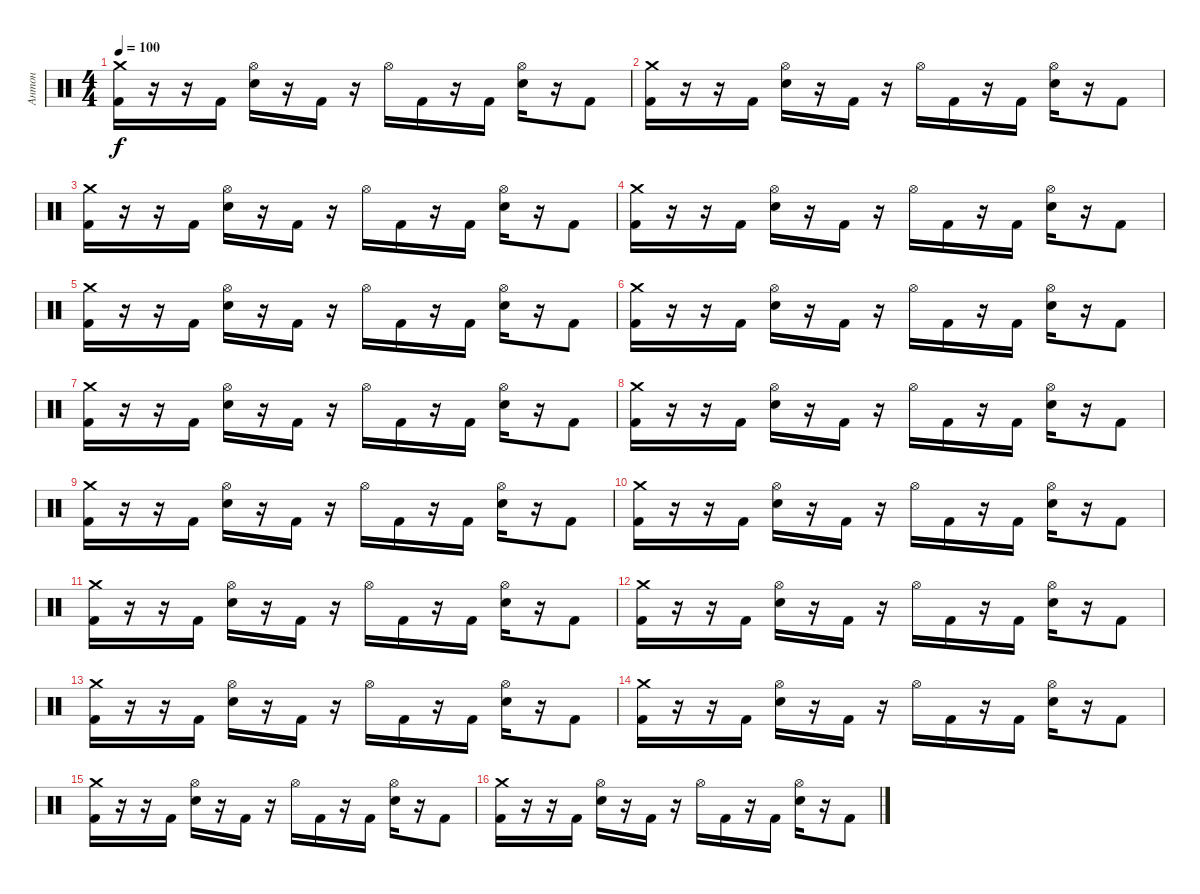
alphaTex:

\track ("Антон" "Антон") {instrument percussion}
\staff {score}
\articulation defaults
\ts (4 4)
\tempo 100
\clef neutral
\ks c
("Crash medium (hit)" "Kick (hit) 2").16{dy f} r.16 r.16 "Kick (hit) 2".16 ("Hi-Hat (open)" "Electric Snare (hit)").16 r.16 "Kick (hit) 2".16 r.16 "Hi-Hat (open)".16 "Kick (hit) 2".16 r.16 "Kick (hit) 2".16 ("Hi-Hat (open)" "Electric Snare (hit)").16 r.16 "Kick (hit) 2".8 |
("Crash medium (hit)" "Kick (hit) 2").16 r.16 r.16 "Kick (hit) 2".16 ("Hi-Hat (open)" "Electric Snare (hit)").16 r.16 "Kick (hit) 2".16 r.16 "Hi-Hat (open)".16 "Kick (hit) 2".16 r.16 "Kick (hit) 2".16 ("Hi-Hat (open)" "Electric Snare (hit)").16 r.16 "Kick (hit) 2".8 |
("Crash medium (hit)" "Kick (hit) 2").16 r.16 r.16 "Kick (hit) 2".16 ("Hi-Hat (open)" "Electric Snare (hit)").16 r.16 "Kick (hit) 2".16 r.16 "Hi-Hat (open)".16 "Kick (hit) 2".16 r.16 "Kick (hit) 2".16 ("Hi-Hat (open)" "Electric Snare (hit)").16 r.16 "Kick (hit) 2".8 |
("Crash medium (hit)" "Kick (hit) 2").16 r.16 r.16 "Kick (hit) 2".16 ("Hi-Hat (open)" "Electric Snare (hit)").16 r.16 "Kick (hit) 2".16 r.16 "Hi-Hat (open)".16 "Kick (hit) 2".16 r.16 "Kick (hit) 2".16 ("Hi-Hat (open)" "Electric Snare (hit)").16 r.16 "Kick (hit) 2".8 |
("Crash medium (hit)" "Kick (hit) 2").16 r.16 r.16 "Kick (hit) 2".16 ("Hi-Hat (open)" "Electric Snare (hit)").16 r.16 "Kick (hit) 2".16 r.16 "Hi-Hat (open)".16 "Kick (hit) 2".16 r.16 "Kick (hit) 2".16 ("Hi-Hat (open)" "Electric Snare (hit)").16 r.16 "Kick (hit) 2".8 |
("Crash medium (hit)" "Kick (hit) 2").16 r.16 r.16 "Kick (hit) 2".16 ("Hi-Hat (open)" "Electric Snare (hit)").16 r.16 "Kick (hit) 2".16 r.16 "Hi-Hat (open)".16 "Kick (hit) 2".16 r.16 "Kick (hit) 2".16 ("Hi-Hat (open)" "Electric Snare (hit)").16 r.16 "Kick (hit) 2".8 |
("Crash medium (hit)" "Kick (hit) 2").16 r.16 r.16 "Kick (hit) 2".16 ("Hi-Hat (open)" "Electric Snare (hit)").16 r.16 "Kick (hit) 2".16 r.16 "Hi-Hat (open)".16 "Kick (hit) 2".16 r.16 "Kick (hit) 2".16 ("Hi-Hat (open)" "Electric Snare (hit)").16 r.16 "Kick (hit) 2".8 |
("Crash medium (hit)" "Kick (hit) 2").16 r.16 r.16 "Kick (hit) 2".16 ("Hi-Hat (open)" "Electric Snare (hit)").16 r.16 "Kick (hit) 2".16 r.16 "Hi-Hat (open)".16 "Kick (hit) 2".16 r.16 "Kick (hit) 2".16 ("Hi-Hat (open)" "Electric Snare (hit)").16 r.16 "Kick (hit) 2".8 |
("Crash medium (hit)" "Kick (hit) 2").16 r.16 r.16 "Kick (hit) 2".16 ("Hi-Hat (open)" "Electric Snare (hit)").16 r.16 "Kick (hit) 2".16 r.16 "Hi-Hat (open)".16 "Kick (hit) 2".16 r.16 "Kick (hit) 2".16 ("Hi-Hat (open)" "Electric Snare (hit)").16 r.16 "Kick (hit) 2".8 |
("Crash medium (hit)" "Kick (hit) 2").16 r.16 r.16 "Kick (hit) 2".16 ("Hi-Hat (open)" "Electric Snare (hit)").16 r.16 "Kick (hit) 2".16 r.16 "Hi-Hat (open)".16 "Kick (hit) 2".16 r.16 "Kick (hit) 2".16 ("Hi-Hat (open)" "Electric Snare (hit)").16 r.16 "Kick (hit) 2".8 |
("Crash medium (hit)" "Kick (hit) 2").16 r.16 r.16 "Kick (hit) 2".16 ("Hi-Hat (open)" "Electric Snare (hit)").16 r.16 "Kick (hit) 2".16 r.16 "Hi-Hat (open)".16 "Kick (hit) 2".16 r.16 "Kick (hit) 2".16 ("Hi-Hat (open)" "Electric Snare (hit)").16 r.16 "Kick (hit) 2".8 |
("Crash medium (hit)" "Kick (hit) 2").16 r.16 r.16 "Kick (hit) 2".16 ("Hi-Hat (open)" "Electric Snare (hit)").16 r.16 "Kick (hit) 2".16 r.16 "Hi-Hat (open)".16 "Kick (hit) 2".16 r.16 "Kick (hit) 2".16 ("Hi-Hat (open)" "Electric Snare (hit)").16 r.16 "Kick (hit) 2".8 |
("Crash medium (hit)" "Kick (hit) 2").16 r.16 r.16 "Kick (hit) 2".16 ("Hi-Hat (open)" "Electric Snare (hit)").16 r.16 "Kick (hit) 2".16 r.16 "Hi-Hat (open)".16 "Kick (hit) 2".16 r.16 "Kick (hit) 2".16 ("Hi-Hat (open)" "Electric Snare (hit)").16 r.16 "Kick (hit) 2".8 |
("Crash medium (hit)" "Kick (hit) 2").16 r.16 r.16 "Kick (hit) 2".16 ("Hi-Hat (open)" "Electric Snare (hit)").16 r.16 "Kick (hit) 2".16 r.16 "Hi-Hat (open)".16 "Kick (hit) 2".16 r.16 "Kick (hit) 2".16 ("Hi-Hat (open)" "Electric Snare (hit)").16 r.16 "Kick (hit) 2".8 |
("Crash medium (hit)" "Kick (hit) 2").16 r.16 r.16 "Kick (hit) 2".16 ("Hi-Hat (open)" "Electric Snare (hit)").16 r.16 "Kick (hit) 2".16 r.16 "Hi-Hat (open)".16 "Kick (hit) 2".16 r.16 "Kick (hit) 2".16 ("Hi-Hat (open)" "Electric Snare (hit)").16 r.16 "Kick (hit) 2".8 |
("Crash medium (hit)" "Kick (hit) 2").16 r.16 r.16 "Kick (hit) 2".16 ("Hi-Hat (open)" "Electric Snare (hit)").16 r.16 "Kick (hit) 2".16 r.16 "Hi-Hat (open)".16 "Kick (hit) 2".16 r.16 "Kick (hit) 2".16 ("Hi-Hat (open)" "Electric Snare (hit)").16 r.16 "Kick (hit) 2".8
